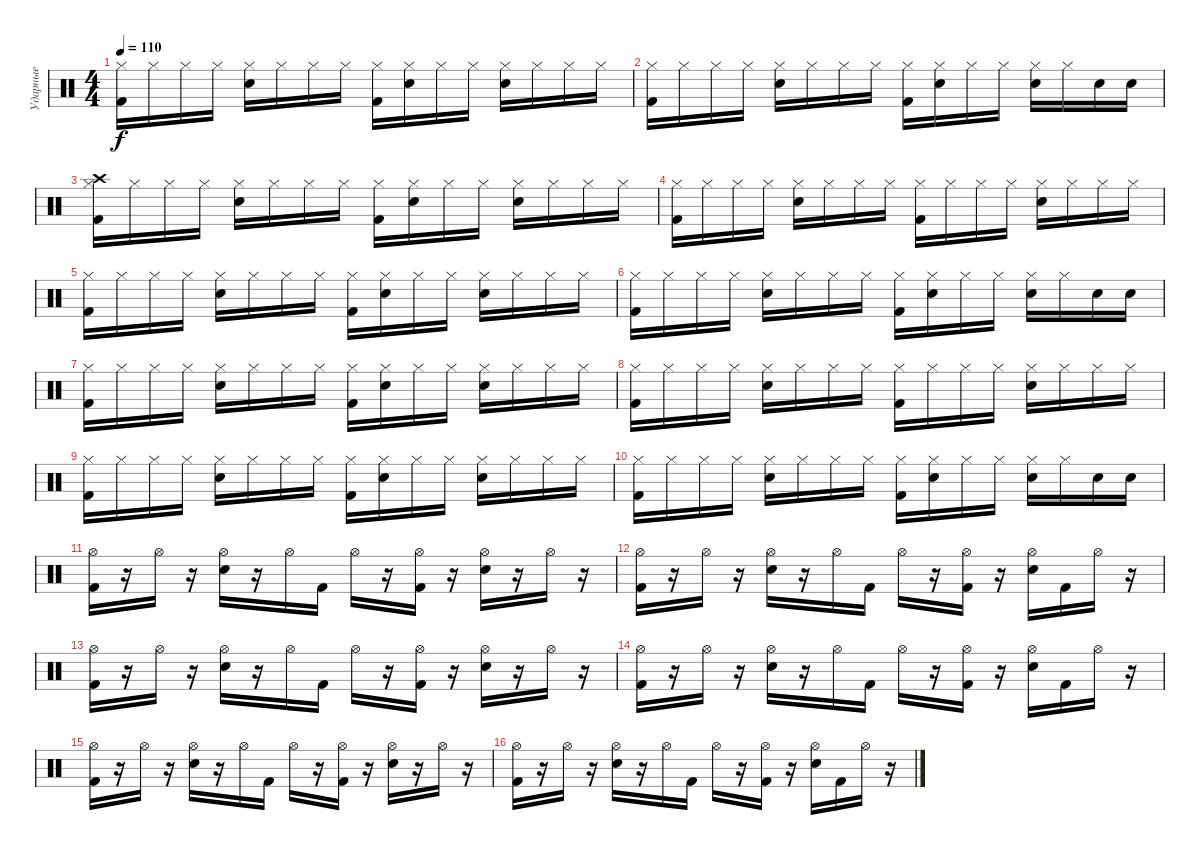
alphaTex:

\track ("Ударные" "Ударные") {instrument percussion}
\staff {score}
\articulation defaults
\ts (4 4)
\tempo 110
\clef neutral
\ks c
("Hi-Hat (closed)" "Kick (hit) 2").16{dy f} "Hi-Hat (closed)".16 "Hi-Hat (closed)".16 "Hi-Hat (closed)".16 ("Hi-Hat (closed)" "Snare (hit) 2").16 "Hi-Hat (closed)".16 "Hi-Hat (closed)".16 "Hi-Hat (closed)".16 ("Hi-Hat (closed)" "Kick (hit) 2").16 ("Hi-Hat (closed)" "Snare (hit) 2").16 "Hi-Hat (closed)".16 "Hi-Hat (closed)".16 ("Hi-Hat (closed)" "Snare (hit) 2").16 "Hi-Hat (closed)".16 "Hi-Hat (closed)".16 "Hi-Hat (closed)".16 |
("Hi-Hat (closed)" "Kick (hit) 2").16 "Hi-Hat (closed)".16 "Hi-Hat (closed)".16 "Hi-Hat (closed)".16 ("Hi-Hat (closed)" "Snare (hit) 2").16 "Hi-Hat (closed)".16 "Hi-Hat (closed)".16 "Hi-Hat (closed)".16 ("Hi-Hat (closed)" "Kick (hit) 2").16 ("Hi-Hat (closed)" "Snare (hit) 2").16 "Hi-Hat (closed)".16 "Hi-Hat (closed)".16 ("Hi-Hat (closed)" "Snare (hit) 2").16 "Hi-Hat (closed)".16 "Snare (hit) 2".16 "Snare (hit) 2".16 |
("Crash high (hit)" "Hi-Hat (closed)" "Kick (hit) 2").16 "Hi-Hat (closed)".16 "Hi-Hat (closed)".16 "Hi-Hat (closed)".16 ("Hi-Hat (closed)" "Snare (hit) 2").16 "Hi-Hat (closed)".16 "Hi-Hat (closed)".16 "Hi-Hat (closed)".16 ("Hi-Hat (closed)" "Kick (hit) 2").16 ("Hi-Hat (closed)" "Snare (hit) 2").16 "Hi-Hat (closed)".16 "Hi-Hat (closed)".16 ("Hi-Hat (closed)" "Snare (hit) 2").16 "Hi-Hat (closed)".16 "Hi-Hat (closed)".16 "Hi-Hat (closed)".16 |
("Hi-Hat (closed)" "Kick (hit) 2").16 "Hi-Hat (closed)".16 "Hi-Hat (closed)".16 "Hi-Hat (closed)".16 ("Hi-Hat (closed)" "Snare (hit) 2").16 "Hi-Hat (closed)".16 "Hi-Hat (closed)".16 "Hi-Hat (closed)".16 ("Hi-Hat (closed)" "Kick (hit) 2").16 "Hi-Hat (closed)".16 "Hi-Hat (closed)".16 "Hi-Hat (closed)".16 ("Hi-Hat (closed)" "Snare (hit) 2").16 "Hi-Hat (closed)".16 "Hi-Hat (closed)".16 "Hi-Hat (closed)".16 |
("Hi-Hat (closed)" "Kick (hit) 2").16 "Hi-Hat (closed)".16 "Hi-Hat (closed)".16 "Hi-Hat (closed)".16 ("Hi-Hat (closed)" "Snare (hit) 2").16 "Hi-Hat (closed)".16 "Hi-Hat (closed)".16 "Hi-Hat (closed)".16 ("Hi-Hat (closed)" "Kick (hit) 2").16 ("Hi-Hat (closed)" "Snare (hit) 2").16 "Hi-Hat (closed)".16 "Hi-Hat (closed)".16 ("Hi-Hat (closed)" "Snare (hit) 2").16 "Hi-Hat (closed)".16 "Hi-Hat (closed)".16 "Hi-Hat (closed)".16 |
("Hi-Hat (closed)" "Kick (hit) 2").16 "Hi-Hat (closed)".16 "Hi-Hat (closed)".16 "Hi-Hat (closed)".16 ("Hi-Hat (closed)" "Snare (hit) 2").16 "Hi-Hat (closed)".16 "Hi-Hat (closed)".16 "Hi-Hat (closed)".16 ("Hi-Hat (closed)" "Kick (hit) 2").16 ("Hi-Hat (closed)" "Snare (hit) 2").16 "Hi-Hat (closed)".16 "Hi-Hat (closed)".16 ("Hi-Hat (closed)" "Snare (hit) 2").16 "Hi-Hat (closed)".16 "Snare (hit) 2".16 "Snare (hit) 2".16 |
("Hi-Hat (closed)" "Kick (hit) 2").16 "Hi-Hat (closed)".16 "Hi-Hat (closed)".16 "Hi-Hat (closed)".16 ("Hi-Hat (closed)" "Snare (hit) 2").16 "Hi-Hat (closed)".16 "Hi-Hat (closed)".16 "Hi-Hat (closed)".16 ("Hi-Hat (closed)" "Kick (hit) 2").16 ("Hi-Hat (closed)" "Snare (hit) 2").16 "Hi-Hat (closed)".16 "Hi-Hat (closed)".16 ("Hi-Hat (closed)" "Snare (hit) 2").16 "Hi-Hat (closed)".16 "Hi-Hat (closed)".16 "Hi-Hat (closed)".16 |
("Hi-Hat (closed)" "Kick (hit) 2").16 "Hi-Hat (closed)".16 "Hi-Hat (closed)".16 "Hi-Hat (closed)".16 ("Hi-Hat (closed)" "Snare (hit) 2").16 "Hi-Hat (closed)".16 "Hi-Hat (closed)".16 "Hi-Hat (closed)".16 ("Hi-Hat (closed)" "Kick (hit) 2").16 "Hi-Hat (closed)".16 "Hi-Hat (closed)".16 "Hi-Hat (closed)".16 ("Hi-Hat (closed)" "Snare (hit) 2").16 "Hi-Hat (closed)".16 "Hi-Hat (closed)".16 "Hi-Hat (closed)".16 |
("Hi-Hat (closed)" "Kick (hit) 2").16 "Hi-Hat (closed)".16 "Hi-Hat (closed)".16 "Hi-Hat (closed)".16 ("Hi-Hat (closed)" "Snare (hit) 2").16 "Hi-Hat (closed)".16 "Hi-Hat (closed)".16 "Hi-Hat (closed)".16 ("Hi-Hat (closed)" "Kick (hit) 2").16 ("Hi-Hat (closed)" "Snare (hit) 2").16 "Hi-Hat (closed)".16 "Hi-Hat (closed)".16 ("Hi-Hat (closed)" "Snare (hit) 2").16 "Hi-Hat (closed)".16 "Hi-Hat (closed)".16 "Hi-Hat (closed)".16 |
("Hi-Hat (closed)" "Kick (hit) 2").16 "Hi-Hat (closed)".16 "Hi-Hat (closed)".16 "Hi-Hat (closed)".16 ("Hi-Hat (closed)" "Snare (hit) 2").16 "Hi-Hat (closed)".16 "Hi-Hat (closed)".16 "Hi-Hat (closed)".16 ("Hi-Hat (closed)" "Kick (hit) 2").16 ("Hi-Hat (closed)" "Snare (hit) 2").16 "Hi-Hat (closed)".16 "Hi-Hat (closed)".16 ("Hi-Hat (closed)" "Snare (hit) 2").16 "Hi-Hat (closed)".16 "Snare (hit) 2".16 "Snare (hit) 2".16 |
("Hi-Hat (open)" "Kick (hit) 2").16 r.16 "Hi-Hat (open)".16 r.16 ("Hi-Hat (open)" "Snare (hit) 2").16 r.16 "Hi-Hat (open)".16 "Kick (hit) 2".16 "Hi-Hat (open)".16 r.16 ("Hi-Hat (open)" "Kick (hit) 2").16 r.16 ("Hi-Hat (open)" "Snare (hit) 2").16 r.16 "Hi-Hat (open)".16 r.16 |
("Hi-Hat (open)" "Kick (hit) 2").16 r.16 "Hi-Hat (open)".16 r.16 ("Hi-Hat (open)" "Snare (hit) 2").16 r.16 "Hi-Hat (open)".16 "Kick (hit) 2".16 "Hi-Hat (open)".16 r.16 ("Hi-Hat (open)" "Kick (hit) 2").16 r.16 ("Hi-Hat (open)" "Snare (hit) 2").16 "Kick (hit) 2".16 "Hi-Hat (open)".16 r.16 |
("Hi-Hat (open)" "Kick (hit) 2").16 r.16 "Hi-Hat (open)".16 r.16 ("Hi-Hat (open)" "Snare (hit) 2").16 r.16 "Hi-Hat (open)".16 "Kick (hit) 2".16 "Hi-Hat (open)".16 r.16 ("Hi-Hat (open)" "Kick (hit) 2").16 r.16 ("Hi-Hat (open)" "Snare (hit) 2").16 r.16 "Hi-Hat (open)".16 r.16 |
("Hi-Hat (open)" "Kick (hit) 2").16 r.16 "Hi-Hat (open)".16 r.16 ("Hi-Hat (open)" "Snare (hit) 2").16 r.16 "Hi-Hat (open)".16 "Kick (hit) 2".16 "Hi-Hat (open)".16 r.16 ("Hi-Hat (open)" "Kick (hit) 2").16 r.16 ("Hi-Hat (open)" "Snare (hit) 2").16 "Kick (hit) 2".16 "Hi-Hat (open)".16 r.16 |
("Hi-Hat (open)" "Kick (hit) 2").16 r.16 "Hi-Hat (open)".16 r.16 ("Hi-Hat (open)" "Snare (hit) 2").16 r.16 "Hi-Hat (open)".16 "Kick (hit) 2".16 "Hi-Hat (open)".16 r.16 ("Hi-Hat (open)" "Kick (hit) 2").16 r.16 ("Hi-Hat (open)" "Snare (hit) 2").16 r.16 "Hi-Hat (open)".16 r.16 |
("Hi-Hat (open)" "Kick (hit) 2").16 r.16 "Hi-Hat (open)".16 r.16 ("Hi-Hat (open)" "Snare (hit) 2").16 r.16 "Hi-Hat (open)".16 "Kick (hit) 2".16 "Hi-Hat (open)".16 r.16 ("Hi-Hat (open)" "Kick (hit) 2").16 r.16 ("Hi-Hat (open)" "Snare (hit) 2").16 "Kick (hit) 2".16 "Hi-Hat (open)".16 r.16
